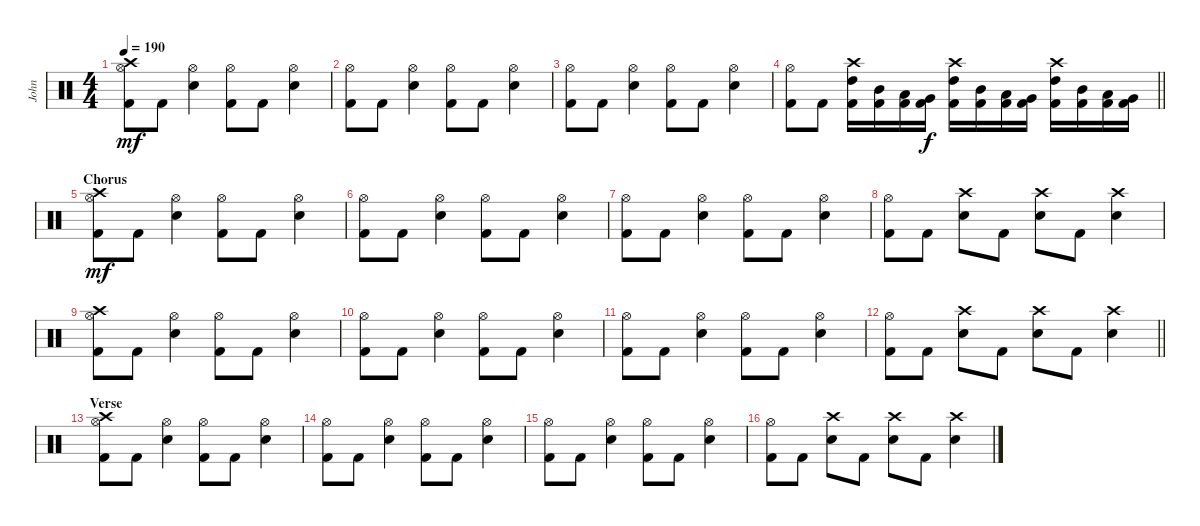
\track ("John" "John") {instrument percussion}
\staff {score}
\articulation defaults
\ts (4 4)
\tempo 190
\clef neutral
\ks c
("Crash high (hit)" "Hi-Hat (open)" "Kick (hit) 2").8{dy mf} "Kick (hit) 2".8 ("Hi-Hat (open)" "Electric Snare (hit)").4 ("Hi-Hat (open)" "Kick (hit) 2").8 "Kick (hit) 2".8 ("Hi-Hat (open)" "Electric Snare (hit)").4 |
("Hi-Hat (open)" "Kick (hit) 2").8 "Kick (hit) 2".8 ("Hi-Hat (open)" "Electric Snare (hit)").4 ("Hi-Hat (open)" "Kick (hit) 2").8 "Kick (hit) 2".8 ("Hi-Hat (open)" "Electric Snare (hit)").4 |
("Hi-Hat (open)" "Kick (hit) 2").8 "Kick (hit) 2".8 ("Hi-Hat (open)" "Electric Snare (hit)").4 ("Hi-Hat (open)" "Kick (hit) 2").8 "Kick (hit) 2".8 ("Hi-Hat (open)" "Electric Snare (hit)").4 |
\barLineRight lightlight
("Hi-Hat (open)" "Kick (hit) 2").8 "Kick (hit) 2".8 ("Crash high (hit)" "High Tom (hit)" "Kick (hit) 2").16 ("Mid Tom (hit)" "Kick (hit) 2").16 ("Low Tom (hit)" "Kick (hit) 2").16 ("Very Low Tom (hit)" "Kick (hit) 2").16{dy f} ("Crash high (hit)" "High Tom (hit)" "Kick (hit) 2").16 ("Mid Tom (hit)" "Kick (hit) 2").16 ("Low Tom (hit)" "Kick (hit) 2").16 ("Very Low Tom (hit)" "Kick (hit) 2").16 ("Crash high (hit)" "High Tom (hit)" "Kick (hit) 2").16 ("Mid Tom (hit)" "Kick (hit) 2").16 ("Low Tom (hit)" "Kick (hit) 2").16 ("Very Low Tom (hit)" "Kick (hit) 2").16 |
\section ("" "Chorus")
("Crash high (hit)" "Hi-Hat (open)" "Kick (hit) 2").8{dy mf} "Kick (hit) 2".8 ("Hi-Hat (open)" "Electric Snare (hit)").4 ("Hi-Hat (open)" "Kick (hit) 2").8 "Kick (hit) 2".8 ("Hi-Hat (open)" "Electric Snare (hit)").4 |
("Hi-Hat (open)" "Kick (hit) 2").8 "Kick (hit) 2".8 ("Hi-Hat (open)" "Electric Snare (hit)").4 ("Hi-Hat (open)" "Kick (hit) 2").8 "Kick (hit) 2".8 ("Hi-Hat (open)" "Electric Snare (hit)").4 |
("Hi-Hat (open)" "Kick (hit) 2").8 "Kick (hit) 2".8 ("Hi-Hat (open)" "Electric Snare (hit)").4 ("Hi-Hat (open)" "Kick (hit) 2").8 "Kick (hit) 2".8 ("Hi-Hat (open)" "Electric Snare (hit)").4 |
("Hi-Hat (open)" "Kick (hit) 2").8 "Kick (hit) 2".8 ("Crash high (hit)" "Electric Snare (hit)").8 "Kick (hit) 2".8 ("Crash high (hit)" "Electric Snare (hit)").8 "Kick (hit) 2".8 ("Crash high (hit)" "Electric Snare (hit)").4 |
("Crash high (hit)" "Hi-Hat (open)" "Kick (hit) 2").8 "Kick (hit) 2".8 ("Hi-Hat (open)" "Electric Snare (hit)").4 ("Hi-Hat (open)" "Kick (hit) 2").8 "Kick (hit) 2".8 ("Hi-Hat (open)" "Electric Snare (hit)").4 |
("Hi-Hat (open)" "Kick (hit) 2").8 "Kick (hit) 2".8 ("Hi-Hat (open)" "Electric Snare (hit)").4 ("Hi-Hat (open)" "Kick (hit) 2").8 "Kick (hit) 2".8 ("Hi-Hat (open)" "Electric Snare (hit)").4 |
("Hi-Hat (open)" "Kick (hit) 2").8 "Kick (hit) 2".8 ("Hi-Hat (open)" "Electric Snare (hit)").4 ("Hi-Hat (open)" "Kick (hit) 2").8 "Kick (hit) 2".8 ("Hi-Hat (open)" "Electric Snare (hit)").4 |
\barLineRight lightlight
("Hi-Hat (open)" "Kick (hit) 2").8 "Kick (hit) 2".8 ("Crash high (hit)" "Electric Snare (hit)").8 "Kick (hit) 2".8 ("Crash high (hit)" "Electric Snare (hit)").8 "Kick (hit) 2".8 ("Crash high (hit)" "Electric Snare (hit)").4 |
\section ("" "Verse")
("Crash high (hit)" "Hi-Hat (open)" "Kick (hit) 2").8 "Kick (hit) 2".8 ("Hi-Hat (open)" "Electric Snare (hit)").4 ("Hi-Hat (open)" "Kick (hit) 2").8 "Kick (hit) 2".8 ("Hi-Hat (open)" "Electric Snare (hit)").4 |
("Hi-Hat (open)" "Kick (hit) 2").8 "Kick (hit) 2".8 ("Hi-Hat (open)" "Electric Snare (hit)").4 ("Hi-Hat (open)" "Kick (hit) 2").8 "Kick (hit) 2".8 ("Hi-Hat (open)" "Electric Snare (hit)").4 |
("Hi-Hat (open)" "Kick (hit) 2").8 "Kick (hit) 2".8 ("Hi-Hat (open)" "Electric Snare (hit)").4 ("Hi-Hat (open)" "Kick (hit) 2").8 "Kick (hit) 2".8 ("Hi-Hat (open)" "Electric Snare (hit)").4 |
("Hi-Hat (open)" "Kick (hit) 2").8 "Kick (hit) 2".8 ("Crash high (hit)" "Electric Snare (hit)").8 "Kick (hit) 2".8 ("Crash high (hit)" "Electric Snare (hit)").8 "Kick (hit) 2".8 ("Crash high (hit)" "Electric Snare (hit)").4
